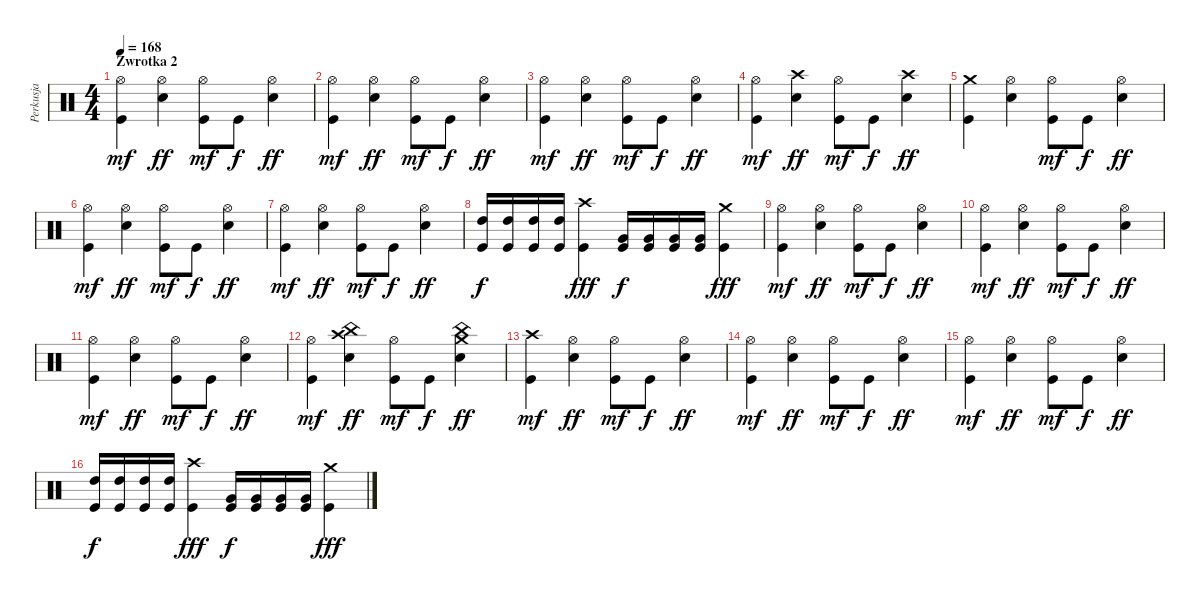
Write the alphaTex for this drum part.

\track ("Perkusja" "Perkusja") {instrument percussion}
\staff {score}
\articulation defaults
\ts (4 4)
\section ("" "Zwrotka 2")
\tempo 168
\clef neutral
\ks c
("Hi-Hat (open)" "Kick (hit)").4{dy mf} ("Hi-Hat (open)" "Snare (hit) 2").4{dy ff} ("Hi-Hat (open)" "Kick (hit)").8{dy mf} "Kick (hit)".8{dy f} ("Hi-Hat (open)" "Snare (hit) 2").4{dy ff} |
("Hi-Hat (open)" "Kick (hit)").4{dy mf} ("Hi-Hat (open)" "Snare (hit) 2").4{dy ff} ("Hi-Hat (open)" "Kick (hit)").8{dy mf} "Kick (hit)".8{dy f} ("Hi-Hat (open)" "Snare (hit) 2").4{dy ff} |
("Hi-Hat (open)" "Kick (hit)").4{dy mf} ("Hi-Hat (open)" "Snare (hit) 2").4{dy ff} ("Hi-Hat (open)" "Kick (hit)").8{dy mf} "Kick (hit)".8{dy f} ("Hi-Hat (open)" "Snare (hit) 2").4{dy ff} |
("Hi-Hat (open)" "Kick (hit)").4{dy mf} ("Crash high (hit)" "Snare (hit) 2").4{dy ff} ("Hi-Hat (open)" "Kick (hit)").8{dy mf} "Kick (hit)".8{dy f} ("Crash high (hit)" "Snare (hit) 2").4{dy ff} |
("Crash medium (hit)" "Kick (hit)").4 ("Hi-Hat (open)" "Snare (hit) 2").4 ("Hi-Hat (open)" "Kick (hit)").8{dy mf} "Kick (hit)".8{dy f} ("Hi-Hat (open)" "Snare (hit) 2").4{dy ff} |
("Hi-Hat (open)" "Kick (hit)").4{dy mf} ("Hi-Hat (open)" "Snare (hit) 2").4{dy ff} ("Hi-Hat (open)" "Kick (hit)").8{dy mf} "Kick (hit)".8{dy f} ("Hi-Hat (open)" "Snare (hit) 2").4{dy ff} |
("Hi-Hat (open)" "Kick (hit)").4{dy mf} ("Hi-Hat (open)" "Snare (hit) 2").4{dy ff} ("Hi-Hat (open)" "Kick (hit)").8{dy mf} "Kick (hit)".8{dy f} ("Hi-Hat (open)" "Snare (hit) 2").4{dy ff} |
("High Tom (hit)" "Kick (hit)").16{dy f} ("High Tom (hit)" "Kick (hit)").16 ("High Tom (hit)" "Kick (hit)").16 ("High Tom (hit)" "Kick (hit)").16 ("Crash high (hit)" "Kick (hit)").4{dy fff} ("Very Low Tom (hit)" "Kick (hit)").16{dy f} ("Very Low Tom (hit)" "Kick (hit)").16 ("Very Low Tom (hit)" "Kick (hit)").16 ("Very Low Tom (hit)" "Kick (hit)").16 ("Crash medium (hit)" "Kick (hit)").4{dy fff} |
("Hi-Hat (open)" "Kick (hit)").4{dy mf} ("Hi-Hat (open)" "Snare (hit) 2").4{dy ff} ("Hi-Hat (open)" "Kick (hit)").8{dy mf} "Kick (hit)".8{dy f} ("Hi-Hat (open)" "Snare (hit) 2").4{dy ff} |
("Hi-Hat (open)" "Kick (hit)").4{dy mf} ("Hi-Hat (open)" "Snare (hit) 2").4{dy ff} ("Hi-Hat (open)" "Kick (hit)").8{dy mf} "Kick (hit)".8{dy f} ("Hi-Hat (open)" "Snare (hit) 2").4{dy ff} |
("Hi-Hat (open)" "Kick (hit)").4{dy mf} ("Hi-Hat (open)" "Snare (hit) 2").4{dy ff} ("Hi-Hat (open)" "Kick (hit)").8{dy mf} "Kick (hit)".8{dy f} ("Hi-Hat (open)" "Snare (hit) 2").4{dy ff} |
("Hi-Hat (open)" "Kick (hit)").4{dy mf} ("Crash high (hit)" "China (hit)" "Snare (hit) 2").4{dy ff} ("Hi-Hat (open)" "Kick (hit)").8{dy mf} "Kick (hit)".8{dy f} ("Crash medium (hit)" "China (hit)" "Snare (hit) 2").4{dy ff} |
("Crash high (hit)" "Kick (hit)").4{dy mf} ("Hi-Hat (open)" "Snare (hit) 2").4{dy ff} ("Hi-Hat (open)" "Kick (hit)").8{dy mf} "Kick (hit)".8{dy f} ("Hi-Hat (open)" "Snare (hit) 2").4{dy ff} |
("Hi-Hat (open)" "Kick (hit)").4{dy mf} ("Hi-Hat (open)" "Snare (hit) 2").4{dy ff} ("Hi-Hat (open)" "Kick (hit)").8{dy mf} "Kick (hit)".8{dy f} ("Hi-Hat (open)" "Snare (hit) 2").4{dy ff} |
("Hi-Hat (open)" "Kick (hit)").4{dy mf} ("Hi-Hat (open)" "Snare (hit) 2").4{dy ff} ("Hi-Hat (open)" "Kick (hit)").8{dy mf} "Kick (hit)".8{dy f} ("Hi-Hat (open)" "Snare (hit) 2").4{dy ff} |
("High Tom (hit)" "Kick (hit)").16{dy f} ("High Tom (hit)" "Kick (hit)").16 ("High Tom (hit)" "Kick (hit)").16 ("High Tom (hit)" "Kick (hit)").16 ("Crash high (hit)" "Kick (hit)").4{dy fff} ("Very Low Tom (hit)" "Kick (hit)").16{dy f} ("Very Low Tom (hit)" "Kick (hit)").16 ("Very Low Tom (hit)" "Kick (hit)").16 ("Very Low Tom (hit)" "Kick (hit)").16 ("Crash medium (hit)" "Kick (hit)").4{dy fff}
